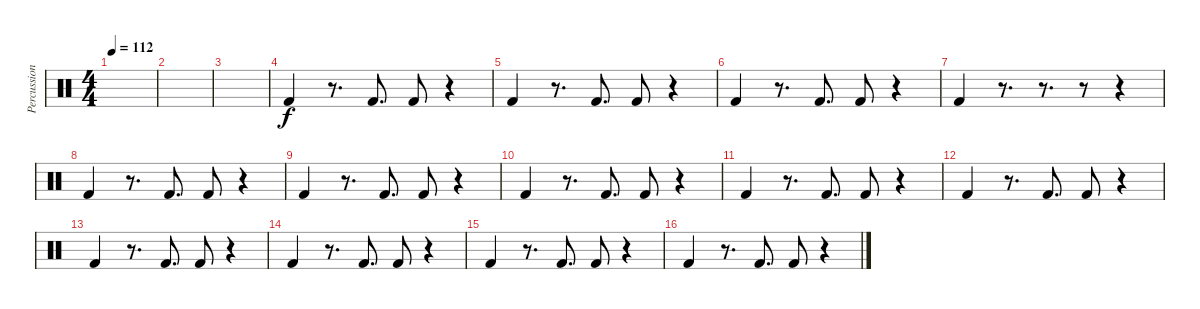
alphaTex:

\track ("Percussion" "Percussion") {instrument percussion}
\staff {score}
\articulation defaults
\ts (4 4)
\tempo 112
\clef neutral
\ks c
|
|
|
"Kick (hit) 2".4 r.8{d} "Kick (hit) 2".8{d} "Kick (hit) 2".8 r.4 |
"Kick (hit) 2".4 r.8{d} "Kick (hit) 2".8{d} "Kick (hit) 2".8 r.4 |
"Kick (hit) 2".4 r.8{d} "Kick (hit) 2".8{d} "Kick (hit) 2".8 r.4 |
"Kick (hit) 2".4 r.8{d} r.8{d} r.8 r.4 |
"Kick (hit) 2".4 r.8{d} "Kick (hit) 2".8{d} "Kick (hit) 2".8 r.4 |
"Kick (hit) 2".4 r.8{d} "Kick (hit) 2".8{d} "Kick (hit) 2".8 r.4 |
"Kick (hit) 2".4 r.8{d} "Kick (hit) 2".8{d} "Kick (hit) 2".8 r.4 |
"Kick (hit) 2".4 r.8{d} "Kick (hit) 2".8{d} "Kick (hit) 2".8 r.4 |
"Kick (hit) 2".4 r.8{d} "Kick (hit) 2".8{d} "Kick (hit) 2".8 r.4 |
"Kick (hit) 2".4 r.8{d} "Kick (hit) 2".8{d} "Kick (hit) 2".8 r.4 |
"Kick (hit) 2".4 r.8{d} "Kick (hit) 2".8{d} "Kick (hit) 2".8 r.4 |
"Kick (hit) 2".4 r.8{d} "Kick (hit) 2".8{d} "Kick (hit) 2".8 r.4 |
"Kick (hit) 2".4 r.8{d} "Kick (hit) 2".8{d} "Kick (hit) 2".8 r.4
